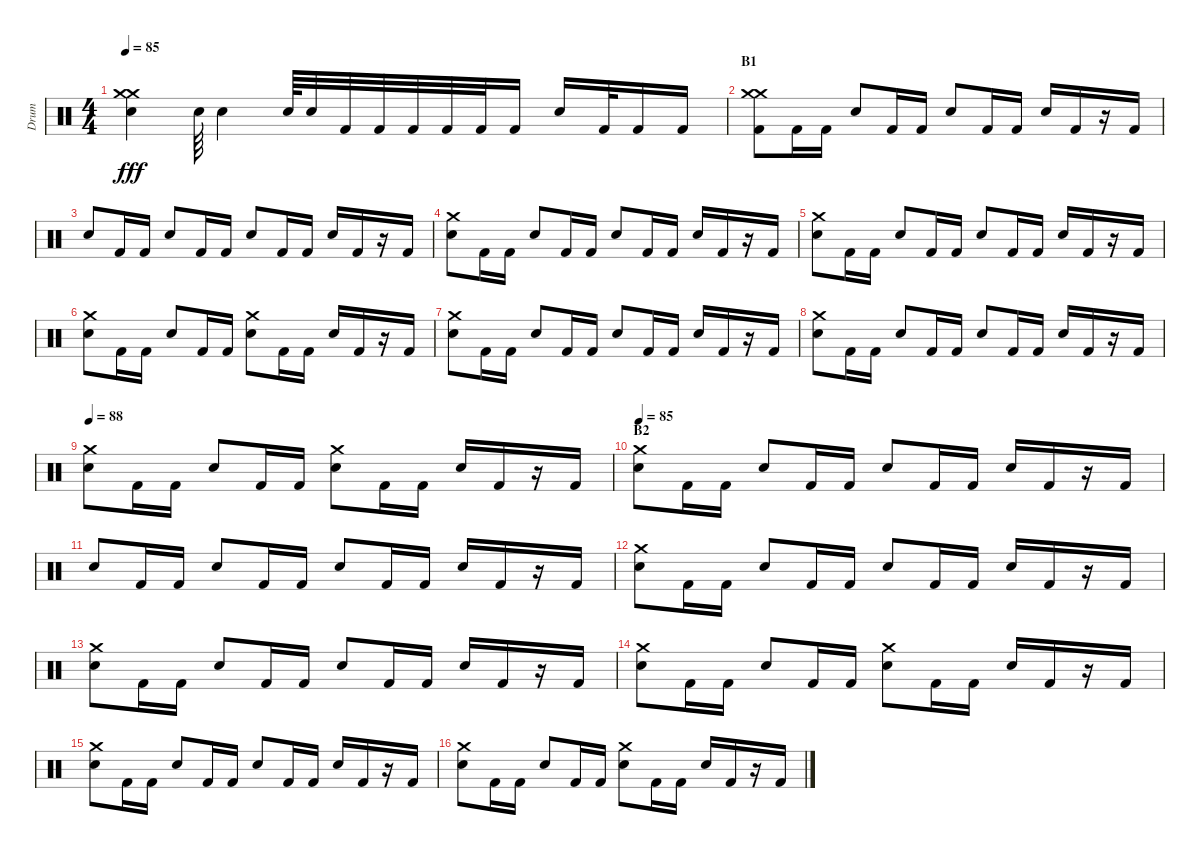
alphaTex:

\track ("Drum" "Drum") {instrument percussion}
\staff {score}
\articulation defaults
\ts (4 4)
\tempo 85
\clef neutral
\ks c
("Electric Snare (hit)" "Crash medium (hit)" "Crash medium (hit)").4{dy fff} "Electric Snare (hit)".64 "Electric Snare (hit)".4 "Electric Snare (hit)".64 "Electric Snare (hit)".32 "Kick (hit) 2".32 "Kick (hit) 2".32 "Kick (hit) 2".32 "Kick (hit) 2".32 "Kick (hit) 2".32 "Kick (hit) 2".16 "Electric Snare (hit)".16 "Kick (hit) 2".32 "Kick (hit) 2".16 "Kick (hit) 2".16 |
\section ("" "B1")
("Kick (hit) 2" "Crash medium (hit)" "Crash medium (hit)").8 "Kick (hit) 2".16 "Kick (hit) 2".16 "Electric Snare (hit)".8 "Kick (hit) 2".16 "Kick (hit) 2".16 "Electric Snare (hit)".8 "Kick (hit) 2".16 "Kick (hit) 2".16 "Electric Snare (hit)".16 "Kick (hit) 2".16 r.16 "Kick (hit) 2".16 |
"Electric Snare (hit)".8 "Kick (hit) 2".16 "Kick (hit) 2".16 "Electric Snare (hit)".8 "Kick (hit) 2".16 "Kick (hit) 2".16 "Electric Snare (hit)".8 "Kick (hit) 2".16 "Kick (hit) 2".16 "Electric Snare (hit)".16 "Kick (hit) 2".16 r.16 "Kick (hit) 2".16 |
("Electric Snare (hit)" "Crash medium (hit)").8 "Kick (hit) 2".16 "Kick (hit) 2".16 "Electric Snare (hit)".8 "Kick (hit) 2".16 "Kick (hit) 2".16 "Electric Snare (hit)".8 "Kick (hit) 2".16 "Kick (hit) 2".16 "Electric Snare (hit)".16 "Kick (hit) 2".16 r.16 "Kick (hit) 2".16 |
("Electric Snare (hit)" "Crash medium (hit)").8 "Kick (hit) 2".16 "Kick (hit) 2".16 "Electric Snare (hit)".8 "Kick (hit) 2".16 "Kick (hit) 2".16 "Electric Snare (hit)".8 "Kick (hit) 2".16 "Kick (hit) 2".16 "Electric Snare (hit)".16 "Kick (hit) 2".16 r.16 "Kick (hit) 2".16 |
("Electric Snare (hit)" "Crash medium (hit)").8 "Kick (hit) 2".16 "Kick (hit) 2".16 "Electric Snare (hit)".8 "Kick (hit) 2".16 "Kick (hit) 2".16 ("Electric Snare (hit)" "Crash medium (hit)").8 "Kick (hit) 2".16 "Kick (hit) 2".16 "Electric Snare (hit)".16 "Kick (hit) 2".16 r.16 "Kick (hit) 2".16 |
("Electric Snare (hit)" "Crash medium (hit)").8 "Kick (hit) 2".16 "Kick (hit) 2".16 "Electric Snare (hit)".8 "Kick (hit) 2".16 "Kick (hit) 2".16 "Electric Snare (hit)".8 "Kick (hit) 2".16 "Kick (hit) 2".16 "Electric Snare (hit)".16 "Kick (hit) 2".16 r.16 "Kick (hit) 2".16 |
("Electric Snare (hit)" "Crash medium (hit)").8 "Kick (hit) 2".16 "Kick (hit) 2".16 "Electric Snare (hit)".8 "Kick (hit) 2".16 "Kick (hit) 2".16 "Electric Snare (hit)".8 "Kick (hit) 2".16 "Kick (hit) 2".16 "Electric Snare (hit)".16 "Kick (hit) 2".16 r.16 "Kick (hit) 2".16 |
\tempo 88
("Electric Snare (hit)" "Crash medium (hit)").8 "Kick (hit) 2".16 "Kick (hit) 2".16 "Electric Snare (hit)".8 "Kick (hit) 2".16 "Kick (hit) 2".16 ("Electric Snare (hit)" "Crash medium (hit)").8 "Kick (hit) 2".16 "Kick (hit) 2".16 "Electric Snare (hit)".16 "Kick (hit) 2".16 r.16 "Kick (hit) 2".16 |
\section ("" "B2")
\tempo 85
("Electric Snare (hit)" "Crash medium (hit)").8 "Kick (hit) 2".16 "Kick (hit) 2".16 "Electric Snare (hit)".8 "Kick (hit) 2".16 "Kick (hit) 2".16 "Electric Snare (hit)".8 "Kick (hit) 2".16 "Kick (hit) 2".16 "Electric Snare (hit)".16 "Kick (hit) 2".16 r.16 "Kick (hit) 2".16 |
"Electric Snare (hit)".8 "Kick (hit) 2".16 "Kick (hit) 2".16 "Electric Snare (hit)".8 "Kick (hit) 2".16 "Kick (hit) 2".16 "Electric Snare (hit)".8 "Kick (hit) 2".16 "Kick (hit) 2".16 "Electric Snare (hit)".16 "Kick (hit) 2".16 r.16 "Kick (hit) 2".16 |
("Electric Snare (hit)" "Crash medium (hit)").8 "Kick (hit) 2".16 "Kick (hit) 2".16 "Electric Snare (hit)".8 "Kick (hit) 2".16 "Kick (hit) 2".16 "Electric Snare (hit)".8 "Kick (hit) 2".16 "Kick (hit) 2".16 "Electric Snare (hit)".16 "Kick (hit) 2".16 r.16 "Kick (hit) 2".16 |
("Electric Snare (hit)" "Crash medium (hit)").8 "Kick (hit) 2".16 "Kick (hit) 2".16 "Electric Snare (hit)".8 "Kick (hit) 2".16 "Kick (hit) 2".16 "Electric Snare (hit)".8 "Kick (hit) 2".16 "Kick (hit) 2".16 "Electric Snare (hit)".16 "Kick (hit) 2".16 r.16 "Kick (hit) 2".16 |
("Electric Snare (hit)" "Crash medium (hit)").8 "Kick (hit) 2".16 "Kick (hit) 2".16 "Electric Snare (hit)".8 "Kick (hit) 2".16 "Kick (hit) 2".16 ("Electric Snare (hit)" "Crash medium (hit)").8 "Kick (hit) 2".16 "Kick (hit) 2".16 "Electric Snare (hit)".16 "Kick (hit) 2".16 r.16 "Kick (hit) 2".16 |
("Electric Snare (hit)" "Crash medium (hit)").8 "Kick (hit) 2".16 "Kick (hit) 2".16 "Electric Snare (hit)".8 "Kick (hit) 2".16 "Kick (hit) 2".16 "Electric Snare (hit)".8 "Kick (hit) 2".16 "Kick (hit) 2".16 "Electric Snare (hit)".16 "Kick (hit) 2".16 r.16 "Kick (hit) 2".16 |
("Electric Snare (hit)" "Crash medium (hit)").8 "Kick (hit) 2".16 "Kick (hit) 2".16 "Electric Snare (hit)".8 "Kick (hit) 2".16 "Kick (hit) 2".16 ("Electric Snare (hit)" "Crash medium (hit)").8 "Kick (hit) 2".16 "Kick (hit) 2".16 "Electric Snare (hit)".16 "Kick (hit) 2".16 r.16 "Kick (hit) 2".16
